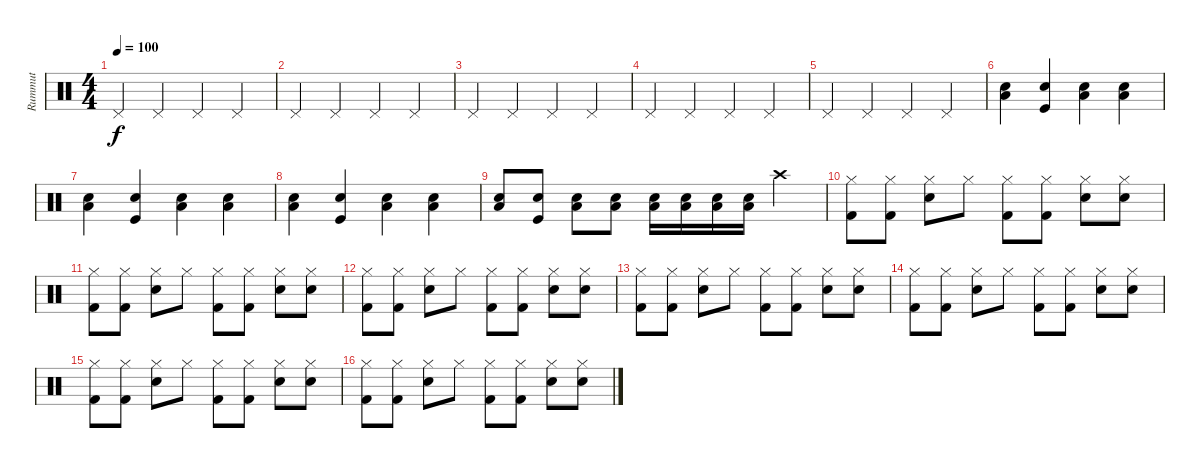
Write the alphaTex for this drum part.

\track ("Rummut" "Rummut") {instrument percussion}
\staff {score}
\articulation defaults
\ts (4 4)
\tempo 100
\clef neutral
\ks c "Pedal Hi-Hat (hit)".4{dy f} "Pedal Hi-Hat (hit)".4 "Pedal Hi-Hat (hit)".4 "Pedal Hi-Hat (hit)".4
|
"Pedal Hi-Hat (hit)".4 "Pedal Hi-Hat (hit)".4 "Pedal Hi-Hat (hit)".4 "Pedal Hi-Hat (hit)".4 |
"Pedal Hi-Hat (hit)".4 "Pedal Hi-Hat (hit)".4 "Pedal Hi-Hat (hit)".4 "Pedal Hi-Hat (hit)".4 |
"Pedal Hi-Hat (hit)".4 "Pedal Hi-Hat (hit)".4 "Pedal Hi-Hat (hit)".4 "Pedal Hi-Hat (hit)".4 |
"Pedal Hi-Hat (hit)".4 "Pedal Hi-Hat (hit)".4 "Pedal Hi-Hat (hit)".4 "Pedal Hi-Hat (hit)".4 |
("Low Tom (hit)" "Snare (hit) 2").4 ("Snare (hit) 2" "Kick (hit)").4 ("Low Tom (hit)" "Snare (hit) 2").4 ("Low Tom (hit)" "Snare (hit) 2").4 |
("Low Tom (hit)" "Snare (hit) 2").4 ("Snare (hit) 2" "Kick (hit)").4 ("Low Tom (hit)" "Snare (hit) 2").4 ("Low Tom (hit)" "Snare (hit) 2").4 |
("Low Tom (hit)" "Snare (hit) 2").4 ("Snare (hit) 2" "Kick (hit)").4 ("Low Tom (hit)" "Snare (hit) 2").4 ("Low Tom (hit)" "Snare (hit) 2").4 |
("Low Tom (hit)" "Snare (hit) 2").8 ("Snare (hit) 2" "Kick (hit)").8 ("Low Tom (hit)" "Snare (hit) 2").8 ("Low Tom (hit)" "Snare (hit) 2").8 ("Low Tom (hit)" "Snare (hit) 2").16 ("Low Tom (hit)" "Snare (hit) 2").16 ("Low Tom (hit)" "Snare (hit) 2").16 ("Low Tom (hit)" "Snare (hit) 2").16 "Crash high (hit)".4 |
("Hi-Hat (closed)" "Kick (hit) 2").8 ("Hi-Hat (closed)" "Kick (hit) 2").8 ("Hi-Hat (closed)" "Snare (hit) 2").8 "Hi-Hat (closed)".8 ("Hi-Hat (closed)" "Kick (hit) 2").8 ("Hi-Hat (closed)" "Kick (hit) 2").8 ("Hi-Hat (closed)" "Snare (hit) 2").8 ("Hi-Hat (closed)" "Snare (hit) 2").8 |
("Hi-Hat (closed)" "Kick (hit) 2").8 ("Hi-Hat (closed)" "Kick (hit) 2").8 ("Hi-Hat (closed)" "Snare (hit) 2").8 "Hi-Hat (closed)".8 ("Hi-Hat (closed)" "Kick (hit) 2").8 ("Hi-Hat (closed)" "Kick (hit) 2").8 ("Hi-Hat (closed)" "Snare (hit) 2").8 ("Hi-Hat (closed)" "Snare (hit) 2").8 |
("Hi-Hat (closed)" "Kick (hit) 2").8 ("Hi-Hat (closed)" "Kick (hit) 2").8 ("Hi-Hat (closed)" "Snare (hit) 2").8 "Hi-Hat (closed)".8 ("Hi-Hat (closed)" "Kick (hit) 2").8 ("Hi-Hat (closed)" "Kick (hit) 2").8 ("Hi-Hat (closed)" "Snare (hit) 2").8 ("Hi-Hat (closed)" "Snare (hit) 2").8 |
("Hi-Hat (closed)" "Kick (hit) 2").8 ("Hi-Hat (closed)" "Kick (hit) 2").8 ("Hi-Hat (closed)" "Snare (hit) 2").8 "Hi-Hat (closed)".8 ("Hi-Hat (closed)" "Kick (hit) 2").8 ("Hi-Hat (closed)" "Kick (hit) 2").8 ("Hi-Hat (closed)" "Snare (hit) 2").8 ("Hi-Hat (closed)" "Snare (hit) 2").8 |
("Hi-Hat (closed)" "Kick (hit) 2").8 ("Hi-Hat (closed)" "Kick (hit) 2").8 ("Hi-Hat (closed)" "Snare (hit) 2").8 "Hi-Hat (closed)".8 ("Hi-Hat (closed)" "Kick (hit) 2").8 ("Hi-Hat (closed)" "Kick (hit) 2").8 ("Hi-Hat (closed)" "Snare (hit) 2").8 ("Hi-Hat (closed)" "Snare (hit) 2").8 |
("Hi-Hat (closed)" "Kick (hit) 2").8 ("Hi-Hat (closed)" "Kick (hit) 2").8 ("Hi-Hat (closed)" "Snare (hit) 2").8 "Hi-Hat (closed)".8 ("Hi-Hat (closed)" "Kick (hit) 2").8 ("Hi-Hat (closed)" "Kick (hit) 2").8 ("Hi-Hat (closed)" "Snare (hit) 2").8 ("Hi-Hat (closed)" "Snare (hit) 2").8 |
("Hi-Hat (closed)" "Kick (hit) 2").8 ("Hi-Hat (closed)" "Kick (hit) 2").8 ("Hi-Hat (closed)" "Snare (hit) 2").8 "Hi-Hat (closed)".8 ("Hi-Hat (closed)" "Kick (hit) 2").8 ("Hi-Hat (closed)" "Kick (hit) 2").8 ("Hi-Hat (closed)" "Snare (hit) 2").8 ("Hi-Hat (closed)" "Snare (hit) 2").8
